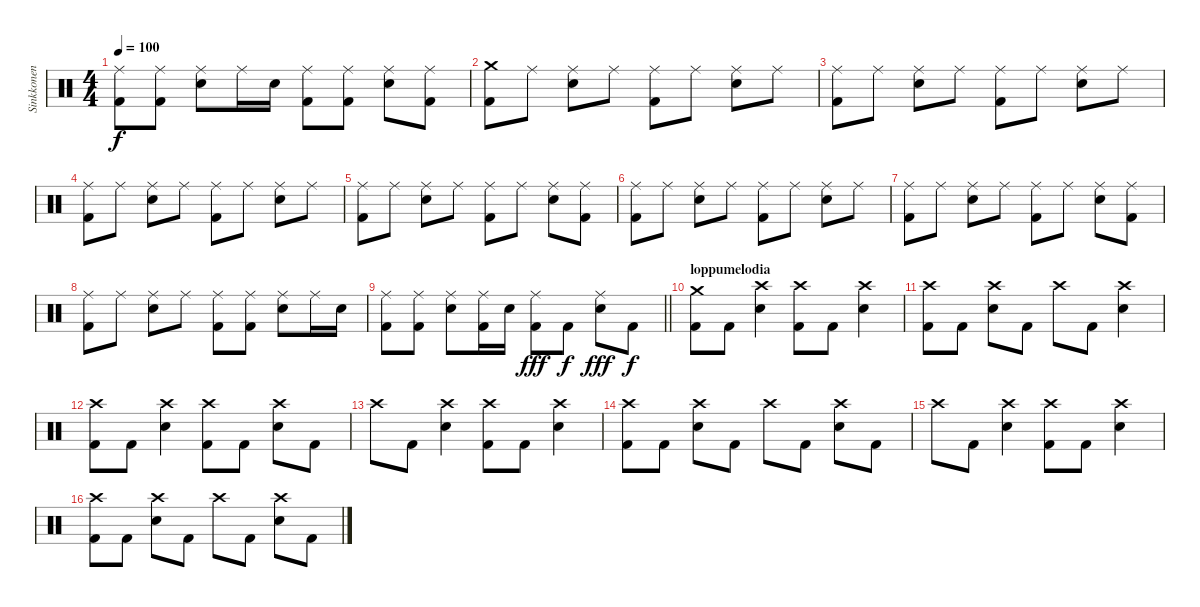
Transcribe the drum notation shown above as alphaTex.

\track ("Sinkkonen" "Sinkkonen") {instrument percussion}
\staff {score}
\articulation defaults
\ts (4 4)
\tempo 100
\clef neutral
\ks c
("Kick (hit) 2" "Ride (middle)").8{dy f} ("Kick (hit) 2" "Ride (middle)").8 ("Ride (middle)" "Electric Snare (hit)").8 "Ride (middle)".16 "Electric Snare (hit)".16 ("Kick (hit) 2" "Ride (middle)").8 ("Kick (hit) 2" "Ride (middle)").8 ("Ride (middle)" "Electric Snare (hit)").8 ("Kick (hit) 2" "Ride (middle)").8 |
("Kick (hit) 2" "Crash medium (hit)").8 "Ride (middle)".8 ("Ride (middle)" "Electric Snare (hit)").8 "Ride (middle)".8 ("Kick (hit) 2" "Ride (middle)").8 "Ride (middle)".8 ("Ride (middle)" "Electric Snare (hit)").8 "Ride (middle)".8 |
("Kick (hit) 2" "Ride (middle)").8 "Ride (middle)".8 ("Ride (middle)" "Electric Snare (hit)").8 "Ride (middle)".8 ("Kick (hit) 2" "Ride (middle)").8 "Ride (middle)".8 ("Ride (middle)" "Electric Snare (hit)").8 "Ride (middle)".8 |
("Kick (hit) 2" "Ride (middle)").8 "Ride (middle)".8 ("Ride (middle)" "Electric Snare (hit)").8 "Ride (middle)".8 ("Kick (hit) 2" "Ride (middle)").8 "Ride (middle)".8 ("Ride (middle)" "Electric Snare (hit)").8 "Ride (middle)".8 |
("Kick (hit) 2" "Ride (middle)").8 "Ride (middle)".8 ("Ride (middle)" "Electric Snare (hit)").8 "Ride (middle)".8 ("Kick (hit) 2" "Ride (middle)").8 "Ride (middle)".8 ("Ride (middle)" "Electric Snare (hit)").8 ("Kick (hit) 2" "Ride (middle)").8 |
("Kick (hit) 2" "Ride (middle)").8 "Ride (middle)".8 ("Ride (middle)" "Electric Snare (hit)").8 "Ride (middle)".8 ("Kick (hit) 2" "Ride (middle)").8 "Ride (middle)".8 ("Ride (middle)" "Electric Snare (hit)").8 "Ride (middle)".8 |
("Kick (hit) 2" "Ride (middle)").8 "Ride (middle)".8 ("Ride (middle)" "Electric Snare (hit)").8 "Ride (middle)".8 ("Kick (hit) 2" "Ride (middle)").8 "Ride (middle)".8 ("Ride (middle)" "Electric Snare (hit)").8 ("Kick (hit) 2" "Ride (middle)").8 |
("Kick (hit) 2" "Ride (middle)").8 "Ride (middle)".8 ("Ride (middle)" "Electric Snare (hit)").8 "Ride (middle)".8 ("Kick (hit) 2" "Ride (middle)").8 ("Kick (hit) 2" "Ride (middle)").8 ("Ride (middle)" "Electric Snare (hit)").8 "Ride (middle)".16 "Electric Snare (hit)".16 |
\barLineRight lightlight
("Kick (hit) 2" "Ride (middle)").8 ("Kick (hit) 2" "Ride (middle)").8 ("Ride (middle)" "Electric Snare (hit)").8 ("Kick (hit) 2" "Ride (middle)").16 "Electric Snare (hit)".16 ("Kick (hit) 2" "Ride (middle)").8{dy fff} "Kick (hit) 2".8{dy f} ("Ride (middle)" "Electric Snare (hit)").8{dy fff} "Kick (hit) 2".8{dy f} |
\section ("" "loppumelodia")
("Kick (hit) 2" "Crash medium (hit)").8 "Kick (hit) 2".8 ("Crash high (hit)" "Electric Snare (hit)").4 ("Kick (hit) 2" "Crash high (hit)").8 "Kick (hit) 2".8 ("Crash high (hit)" "Electric Snare (hit)").4 |
("Kick (hit) 2" "Crash high (hit)").8 "Kick (hit) 2".8 ("Crash high (hit)" "Electric Snare (hit)").8 "Kick (hit) 2".8 "Crash high (hit)".8 "Kick (hit) 2".8 ("Crash high (hit)" "Electric Snare (hit)").4 |
("Kick (hit) 2" "Crash high (hit)").8 "Kick (hit) 2".8 ("Crash high (hit)" "Electric Snare (hit)").4 ("Kick (hit) 2" "Crash high (hit)").8 "Kick (hit) 2".8 ("Crash high (hit)" "Electric Snare (hit)").8 "Kick (hit) 2".8 |
"Crash high (hit)".8 "Kick (hit) 2".8 ("Crash high (hit)" "Electric Snare (hit)").4 ("Kick (hit) 2" "Crash high (hit)").8 "Kick (hit) 2".8 ("Crash high (hit)" "Electric Snare (hit)").4 |
("Kick (hit) 2" "Crash high (hit)").8 "Kick (hit) 2".8 ("Crash high (hit)" "Electric Snare (hit)").8 "Kick (hit) 2".8 "Crash high (hit)".8 "Kick (hit) 2".8 ("Crash high (hit)" "Electric Snare (hit)").8 "Kick (hit) 2".8 |
"Crash high (hit)".8 "Kick (hit) 2".8 ("Crash high (hit)" "Electric Snare (hit)").4 ("Kick (hit) 2" "Crash high (hit)").8 "Kick (hit) 2".8 ("Crash high (hit)" "Electric Snare (hit)").4 |
("Kick (hit) 2" "Crash high (hit)").8 "Kick (hit) 2".8 ("Crash high (hit)" "Electric Snare (hit)").8 "Kick (hit) 2".8 "Crash high (hit)".8 "Kick (hit) 2".8 ("Crash high (hit)" "Electric Snare (hit)").8 "Kick (hit) 2".8
